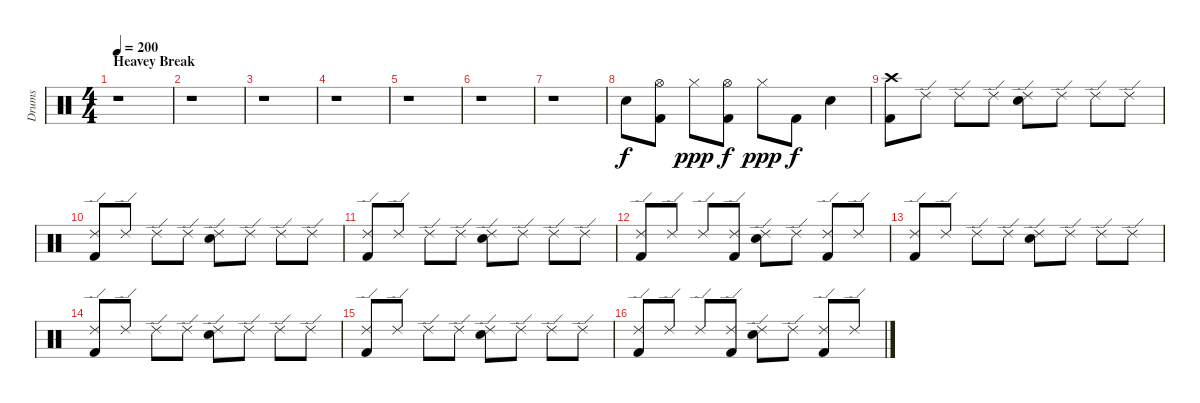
\track ("Drums" "Drums") {instrument percussion}
\staff {score}
\articulation defaults
\ts (4 4)
\section ("" "Heavey Break")
\tempo 200
\clef neutral
\ks c
r.1{dy mf} |
r.1 |
r.1 |
r.1 |
r.1 |
r.1 |
r.1 |
"Snare (hit) 2".8{dy f} ("Kick (hit) 2" "Hi-Hat (open)").8 "Hi-Hat (closed)".8{dy ppp} ("Kick (hit) 2" "Hi-Hat (open)").8{dy f} "Hi-Hat (closed)".8{dy ppp} "Kick (hit) 2".8{dy f} "Snare (hit) 2".4 |
\section ("" "")
("Kick (hit) 2" "Crash high (hit)").8 "Ride (edge) 2".8 "Ride (edge) 2".8 "Ride (edge) 2".8 ("Snare (hit) 2" "Ride (edge) 2").8 "Ride (edge) 2".8 "Ride (edge) 2".8 "Ride (edge) 2".8 |
("Kick (hit) 2" "Ride (edge) 2").8 "Ride (edge) 2".8 "Ride (edge) 2".8 "Ride (edge) 2".8 ("Snare (hit) 2" "Ride (edge) 2").8 "Ride (edge) 2".8 "Ride (edge) 2".8 "Ride (edge) 2".8 |
("Kick (hit) 2" "Ride (edge) 2").8 "Ride (edge) 2".8 "Ride (edge) 2".8 "Ride (edge) 2".8 ("Snare (hit) 2" "Ride (edge) 2").8 "Ride (edge) 2".8 "Ride (edge) 2".8 "Ride (edge) 2".8 |
("Kick (hit) 2" "Ride (edge) 2").8 "Ride (edge) 2".8 "Ride (edge) 2".8 ("Kick (hit) 2" "Ride (edge) 2").8 ("Snare (hit) 2" "Ride (edge) 2").8 "Ride (edge) 2".8 ("Kick (hit) 2" "Ride (edge) 2").8 "Ride (edge) 2".8 |
("Kick (hit) 2" "Ride (edge) 2").8 "Ride (edge) 2".8 "Ride (edge) 2".8 "Ride (edge) 2".8 ("Snare (hit) 2" "Ride (edge) 2").8 "Ride (edge) 2".8 "Ride (edge) 2".8 "Ride (edge) 2".8 |
("Kick (hit) 2" "Ride (edge) 2").8 "Ride (edge) 2".8 "Ride (edge) 2".8 "Ride (edge) 2".8 ("Snare (hit) 2" "Ride (edge) 2").8 "Ride (edge) 2".8 "Ride (edge) 2".8 "Ride (edge) 2".8 |
("Kick (hit) 2" "Ride (edge) 2").8 "Ride (edge) 2".8 "Ride (edge) 2".8 "Ride (edge) 2".8 ("Snare (hit) 2" "Ride (edge) 2").8 "Ride (edge) 2".8 "Ride (edge) 2".8 "Ride (edge) 2".8 |
("Kick (hit) 2" "Ride (edge) 2").8 "Ride (edge) 2".8 "Ride (edge) 2".8 ("Kick (hit) 2" "Ride (edge) 2").8 ("Snare (hit) 2" "Ride (edge) 2").8 "Ride (edge) 2".8 ("Kick (hit) 2" "Ride (edge) 2").8 "Ride (edge) 2".8
